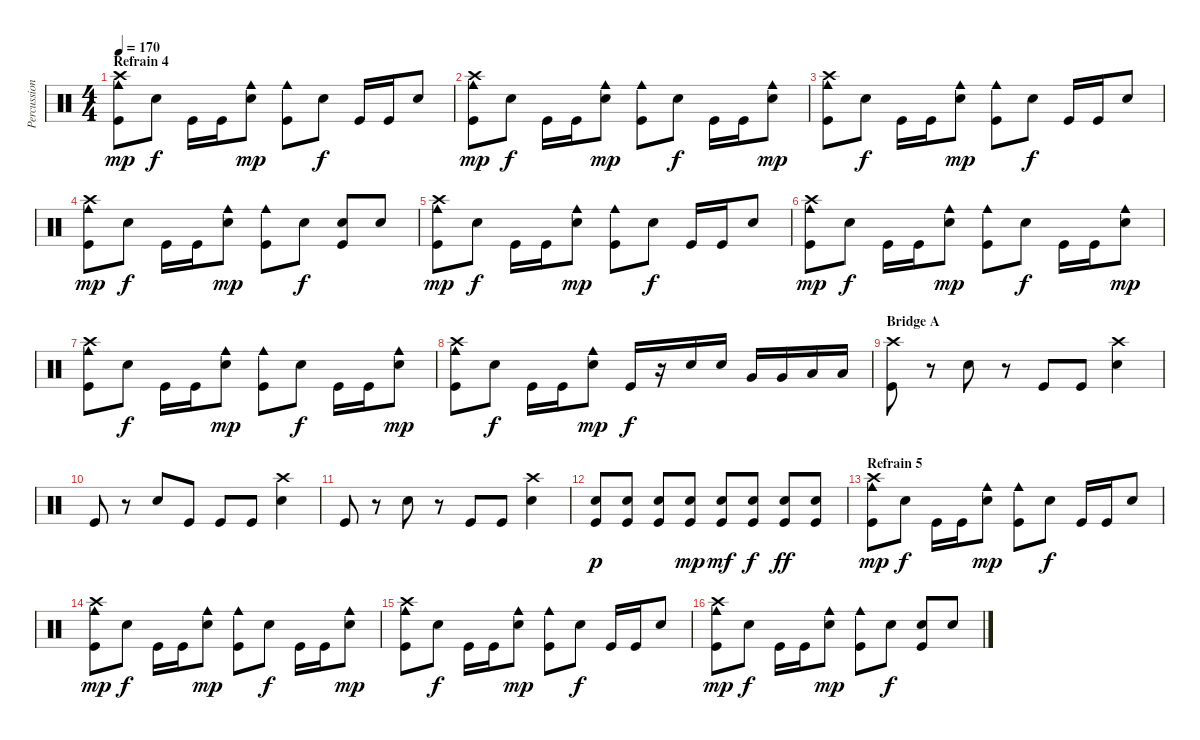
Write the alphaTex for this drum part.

\track ("Percussion" "Percussion") {instrument percussion}
\staff {score}
\articulation defaults
\ts (4 4)
\section ("" "Refrain 4")
\tempo 170
\clef neutral
\ks c
("Cowbell medium (hit)" "Crash high (hit)" "Kick (hit)").8{dy mp} "Electric Snare (hit)".8{dy f} "Kick (hit)".16 "Kick (hit)".16 ("Cowbell medium (hit)" "Electric Snare (hit)").8{dy mp} ("Cowbell medium (hit)" "Kick (hit)").8 "Electric Snare (hit)".8{dy f} "Kick (hit)".16 "Kick (hit)".16 "Electric Snare (hit)".8 |
("Cowbell medium (hit)" "Crash high (hit)" "Kick (hit)").8{dy mp} "Electric Snare (hit)".8{dy f} "Kick (hit)".16 "Kick (hit)".16 ("Cowbell medium (hit)" "Electric Snare (hit)").8{dy mp} ("Cowbell medium (hit)" "Kick (hit)").8 "Electric Snare (hit)".8{dy f} "Kick (hit)".16 "Kick (hit)".16 ("Cowbell medium (hit)" "Electric Snare (hit)").8{dy mp} |
("Cowbell medium (hit)" "Crash high (hit)" "Kick (hit)").8 "Electric Snare (hit)".8{dy f} "Kick (hit)".16 "Kick (hit)".16 ("Cowbell medium (hit)" "Electric Snare (hit)").8{dy mp} ("Cowbell medium (hit)" "Kick (hit)").8 "Electric Snare (hit)".8{dy f} "Kick (hit)".16 "Kick (hit)".16 "Electric Snare (hit)".8 |
("Cowbell medium (hit)" "Crash high (hit)" "Kick (hit)").8{dy mp} "Electric Snare (hit)".8{dy f} "Kick (hit)".16 "Kick (hit)".16 ("Cowbell medium (hit)" "Electric Snare (hit)").8{dy mp} ("Cowbell medium (hit)" "Kick (hit)").8 "Electric Snare (hit)".8{dy f} ("Electric Snare (hit)" "Kick (hit)").8 "Electric Snare (hit)".8 |
("Cowbell medium (hit)" "Crash high (hit)" "Kick (hit)").8{dy mp} "Electric Snare (hit)".8{dy f} "Kick (hit)".16 "Kick (hit)".16 ("Cowbell medium (hit)" "Electric Snare (hit)").8{dy mp} ("Cowbell medium (hit)" "Kick (hit)").8 "Electric Snare (hit)".8{dy f} "Kick (hit)".16 "Kick (hit)".16 "Electric Snare (hit)".8 |
("Cowbell medium (hit)" "Crash high (hit)" "Kick (hit)").8{dy mp} "Electric Snare (hit)".8{dy f} "Kick (hit)".16 "Kick (hit)".16 ("Cowbell medium (hit)" "Electric Snare (hit)").8{dy mp} ("Cowbell medium (hit)" "Kick (hit)").8 "Electric Snare (hit)".8{dy f} "Kick (hit)".16 "Kick (hit)".16 ("Cowbell medium (hit)" "Electric Snare (hit)").8{dy mp} |
("Cowbell medium (hit)" "Crash high (hit)" "Kick (hit)").8 "Electric Snare (hit)".8{dy f} "Kick (hit)".16 "Kick (hit)".16 ("Cowbell medium (hit)" "Electric Snare (hit)").8{dy mp} ("Cowbell medium (hit)" "Kick (hit)").8 "Electric Snare (hit)".8{dy f} "Kick (hit)".16 "Kick (hit)".16 ("Cowbell medium (hit)" "Electric Snare (hit)").8{dy mp} |
("Cowbell medium (hit)" "Crash high (hit)" "Kick (hit)").8 "Electric Snare (hit)".8{dy f} "Kick (hit)".16 "Kick (hit)".16 ("Cowbell medium (hit)" "Electric Snare (hit)").8{dy mp} "Kick (hit)".16{dy f} r.16 "Electric Snare (hit)".16 "Electric Snare (hit)".16 "Very Low Tom (hit)".16 "Very Low Tom (hit)".16 "Low Floor Tom (hit)".16 "Low Floor Tom (hit)".16 |
\section ("" "Bridge A")
("Crash high (hit)" "Kick (hit)").8 r.8 "Electric Snare (hit)".8 r.8 "Kick (hit)".8 "Kick (hit)".8 ("Crash high (hit)" "Electric Snare (hit)").4 |
"Kick (hit)".8 r.8 "Electric Snare (hit)".8 "Kick (hit)".8 "Kick (hit)".8 "Kick (hit)".8 ("Crash high (hit)" "Electric Snare (hit)").4 |
"Kick (hit)".8 r.8 "Electric Snare (hit)".8 r.8 "Kick (hit)".8 "Kick (hit)".8 ("Crash high (hit)" "Electric Snare (hit)").4 |
("Electric Snare (hit)" "Kick (hit)").8{dy p} ("Electric Snare (hit)" "Kick (hit)").8 ("Electric Snare (hit)" "Kick (hit)").8 ("Electric Snare (hit)" "Kick (hit)").8{dy mp} ("Electric Snare (hit)" "Kick (hit)").8{dy mf} ("Electric Snare (hit)" "Kick (hit)").8{dy f} ("Electric Snare (hit)" "Kick (hit)").8{dy ff} ("Electric Snare (hit)" "Kick (hit)").8 |
\section ("" "Refrain 5")
("Cowbell medium (hit)" "Crash high (hit)" "Kick (hit)").8{dy mp} "Electric Snare (hit)".8{dy f} "Kick (hit)".16 "Kick (hit)".16 ("Cowbell medium (hit)" "Electric Snare (hit)").8{dy mp} ("Cowbell medium (hit)" "Kick (hit)").8 "Electric Snare (hit)".8{dy f} "Kick (hit)".16 "Kick (hit)".16 "Electric Snare (hit)".8 |
("Cowbell medium (hit)" "Crash high (hit)" "Kick (hit)").8{dy mp} "Electric Snare (hit)".8{dy f} "Kick (hit)".16 "Kick (hit)".16 ("Cowbell medium (hit)" "Electric Snare (hit)").8{dy mp} ("Cowbell medium (hit)" "Kick (hit)").8 "Electric Snare (hit)".8{dy f} "Kick (hit)".16 "Kick (hit)".16 ("Cowbell medium (hit)" "Electric Snare (hit)").8{dy mp} |
("Cowbell medium (hit)" "Crash high (hit)" "Kick (hit)").8 "Electric Snare (hit)".8{dy f} "Kick (hit)".16 "Kick (hit)".16 ("Cowbell medium (hit)" "Electric Snare (hit)").8{dy mp} ("Cowbell medium (hit)" "Kick (hit)").8 "Electric Snare (hit)".8{dy f} "Kick (hit)".16 "Kick (hit)".16 "Electric Snare (hit)".8 |
("Cowbell medium (hit)" "Crash high (hit)" "Kick (hit)").8{dy mp} "Electric Snare (hit)".8{dy f} "Kick (hit)".16 "Kick (hit)".16 ("Cowbell medium (hit)" "Electric Snare (hit)").8{dy mp} ("Cowbell medium (hit)" "Kick (hit)").8 "Electric Snare (hit)".8{dy f} ("Electric Snare (hit)" "Kick (hit)").8 "Electric Snare (hit)".8
